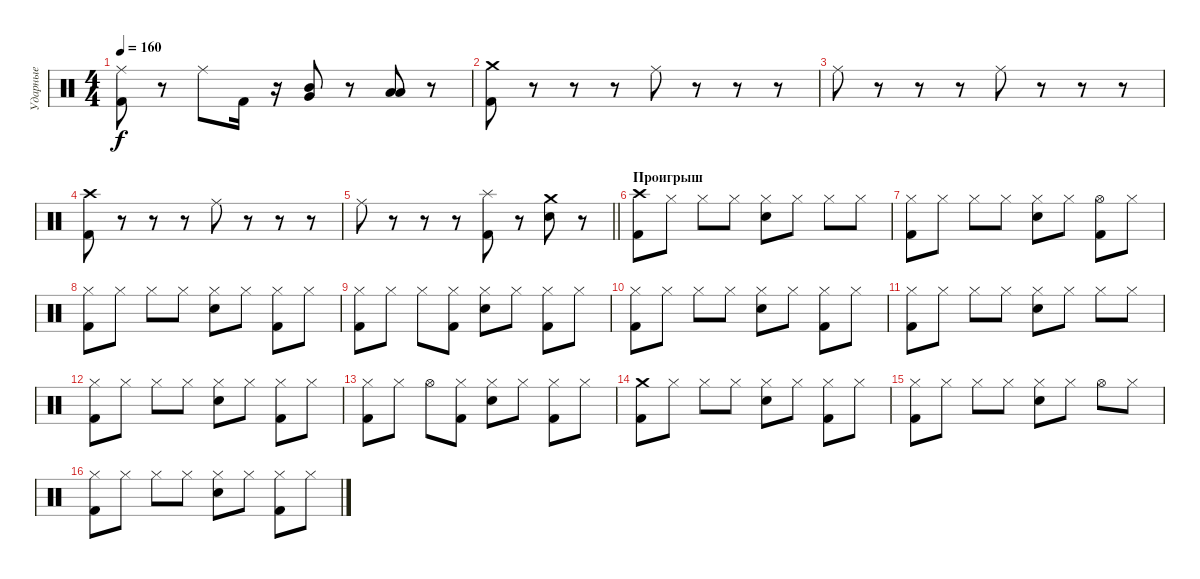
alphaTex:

\track ("Ударные" "Ударные") {instrument percussion}
\staff {score}
\articulation defaults
\ts (4 4)
\tempo 160
\clef neutral
\ks c
("Kick (hit) 2" "Ride (middle)").8{dy f} r.8 "Ride (middle)".8 "Kick (hit) 2".16 r.16 ("Very Low Tom (hit)" "Mid Tom (hit)").8 r.8 ("Low Floor Tom (hit)" "Low Tom (hit)").8 r.8 |
("Kick (hit) 2" "Crash medium (hit)").8 r.8 r.8 r.8 "Ride (middle)".8 r.8 r.8 r.8 |
"Ride (middle)".8 r.8 r.8 r.8 "Ride (middle)".8 r.8 r.8 r.8 |
("Kick (hit) 2" "Crash high (hit)").8 r.8 r.8 r.8 "Ride (middle)".8 r.8 r.8 r.8 |
\barLineRight lightlight "Ride (middle)".8
r.8 r.8 r.8 ("Kick (hit) 2" "Splash (hit)").8 r.8 ("Electric Snare (hit)" "Crash medium (hit)").8 r.8 |
\section ("" "Проигрыш")
("Kick (hit) 2" "Crash high (hit)").8 "Hi-Hat (closed)".8 "Hi-Hat (closed)".8 "Hi-Hat (closed)".8 ("Electric Snare (hit)" "Hi-Hat (closed)").8 "Hi-Hat (closed)".8 "Hi-Hat (closed)".8 "Hi-Hat (closed)".8 |
("Kick (hit) 2" "Hi-Hat (closed)").8 "Hi-Hat (closed)".8 "Hi-Hat (closed)".8 "Hi-Hat (closed)".8 ("Electric Snare (hit)" "Hi-Hat (closed)").8 "Hi-Hat (closed)".8 ("Kick (hit) 2" "Hi-Hat (open)").8 "Hi-Hat (closed)".8 |
("Kick (hit) 2" "Hi-Hat (closed)").8 "Hi-Hat (closed)".8 "Hi-Hat (closed)".8 "Hi-Hat (closed)".8 ("Electric Snare (hit)" "Hi-Hat (closed)").8 "Hi-Hat (closed)".8 ("Kick (hit) 2" "Hi-Hat (closed)").8 "Hi-Hat (closed)".8 |
("Kick (hit) 2" "Hi-Hat (closed)").8 "Hi-Hat (closed)".8 "Hi-Hat (closed)".8 ("Kick (hit) 2" "Hi-Hat (closed)").8 ("Electric Snare (hit)" "Hi-Hat (closed)").8 "Hi-Hat (closed)".8 ("Kick (hit) 2" "Hi-Hat (closed)").8 "Hi-Hat (closed)".8 |
("Kick (hit) 2" "Hi-Hat (closed)").8 "Hi-Hat (closed)".8 "Hi-Hat (closed)".8 "Hi-Hat (closed)".8 ("Electric Snare (hit)" "Hi-Hat (closed)").8 "Hi-Hat (closed)".8 ("Kick (hit) 2" "Hi-Hat (closed)").8 "Hi-Hat (closed)".8 |
("Kick (hit) 2" "Hi-Hat (closed)").8 "Hi-Hat (closed)".8 "Hi-Hat (closed)".8 "Hi-Hat (closed)".8 ("Electric Snare (hit)" "Hi-Hat (closed)").8 "Hi-Hat (closed)".8 "Hi-Hat (closed)".8 "Hi-Hat (closed)".8 |
("Kick (hit) 2" "Hi-Hat (closed)").8 "Hi-Hat (closed)".8 "Hi-Hat (closed)".8 "Hi-Hat (closed)".8 ("Electric Snare (hit)" "Hi-Hat (closed)").8 "Hi-Hat (closed)".8 ("Kick (hit) 2" "Hi-Hat (closed)").8 "Hi-Hat (closed)".8 |
("Kick (hit) 2" "Hi-Hat (closed)").8 "Hi-Hat (closed)".8 "Hi-Hat (open)".8 ("Kick (hit) 2" "Hi-Hat (closed)").8 ("Electric Snare (hit)" "Hi-Hat (closed)").8 "Hi-Hat (closed)".8 ("Kick (hit) 2" "Hi-Hat (closed)").8 "Hi-Hat (closed)".8 |
("Kick (hit) 2" "Crash medium (hit)").8 "Hi-Hat (closed)".8 "Hi-Hat (closed)".8 "Hi-Hat (closed)".8 ("Electric Snare (hit)" "Hi-Hat (closed)").8 "Hi-Hat (closed)".8 ("Kick (hit) 2" "Hi-Hat (closed)").8 "Hi-Hat (closed)".8 |
("Kick (hit) 2" "Hi-Hat (closed)").8 "Hi-Hat (closed)".8 "Hi-Hat (closed)".8 "Hi-Hat (closed)".8 ("Electric Snare (hit)" "Hi-Hat (closed)").8 "Hi-Hat (closed)".8 "Hi-Hat (open)".8 "Hi-Hat (closed)".8 |
("Kick (hit) 2" "Hi-Hat (closed)").8 "Hi-Hat (closed)".8 "Hi-Hat (closed)".8 "Hi-Hat (closed)".8 ("Electric Snare (hit)" "Hi-Hat (closed)").8 "Hi-Hat (closed)".8 ("Kick (hit) 2" "Hi-Hat (closed)").8 "Hi-Hat (closed)".8
